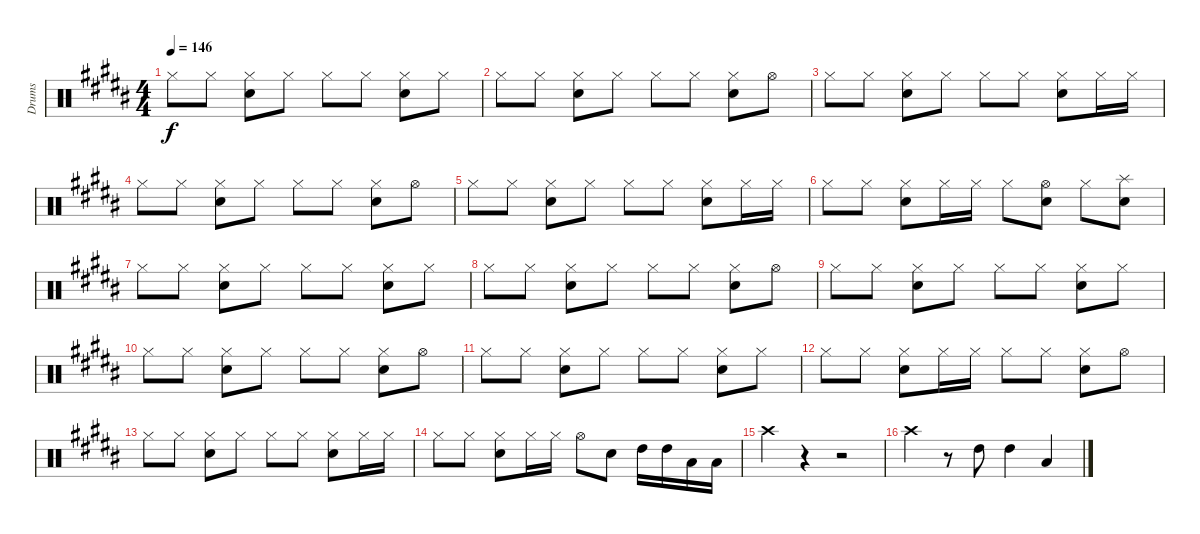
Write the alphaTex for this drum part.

\track ("Drums" "Drums") {instrument percussion}
\staff {score}
\articulation defaults
\ts (4 4)
\tempo 146
\clef neutral
\ks b "Hi-Hat (closed)".8{dy f} "Hi-Hat (closed)".8
("Hi-Hat (closed)" "Snare (hit) 2").8 "Hi-Hat (closed)".8 "Hi-Hat (closed)".8 "Hi-Hat (closed)".8 ("Hi-Hat (closed)" "Snare (hit) 2").8 "Hi-Hat (closed)".8 |
"Hi-Hat (closed)".8 "Hi-Hat (closed)".8 ("Hi-Hat (closed)" "Snare (hit) 2").8 "Hi-Hat (closed)".8 "Hi-Hat (closed)".8 "Hi-Hat (closed)".8 ("Hi-Hat (closed)" "Snare (hit) 2").8 "Hi-Hat (open)".8 |
"Hi-Hat (closed)".8 "Hi-Hat (closed)".8 ("Hi-Hat (closed)" "Snare (hit) 2").8 "Hi-Hat (closed)".8 "Hi-Hat (closed)".8 "Hi-Hat (closed)".8 ("Hi-Hat (closed)" "Snare (hit) 2").8 "Hi-Hat (closed)".16 "Hi-Hat (closed)".16 |
"Hi-Hat (closed)".8 "Hi-Hat (closed)".8 ("Hi-Hat (closed)" "Snare (hit) 2").8 "Hi-Hat (closed)".8 "Hi-Hat (closed)".8 "Hi-Hat (closed)".8 ("Hi-Hat (closed)" "Snare (hit) 2").8 "Hi-Hat (open)".8 |
"Hi-Hat (closed)".8 "Hi-Hat (closed)".8 ("Hi-Hat (closed)" "Snare (hit) 2").8 "Hi-Hat (closed)".8 "Hi-Hat (closed)".8 "Hi-Hat (closed)".8 ("Hi-Hat (closed)" "Snare (hit) 2").8 "Hi-Hat (closed)".16 "Hi-Hat (closed)".16 |
"Hi-Hat (closed)".8 "Hi-Hat (closed)".8 ("Hi-Hat (closed)" "Snare (hit) 2").8 "Hi-Hat (closed)".16 "Hi-Hat (closed)".16 "Hi-Hat (closed)".8 ("Hi-Hat (open)" "Snare (hit) 2").8 "Hi-Hat (closed)".8 ("Splash (hit)" "Snare (hit) 2").8 |
"Hi-Hat (closed)".8 "Hi-Hat (closed)".8 ("Hi-Hat (closed)" "Snare (hit) 2").8 "Hi-Hat (closed)".8 "Hi-Hat (closed)".8 "Hi-Hat (closed)".8 ("Hi-Hat (closed)" "Snare (hit) 2").8 "Hi-Hat (closed)".8 |
"Hi-Hat (closed)".8 "Hi-Hat (closed)".8 ("Hi-Hat (closed)" "Snare (hit) 2").8 "Hi-Hat (closed)".8 "Hi-Hat (closed)".8 "Hi-Hat (closed)".8 ("Hi-Hat (closed)" "Snare (hit) 2").8 "Hi-Hat (open)".8 |
"Hi-Hat (closed)".8 "Hi-Hat (closed)".8 ("Hi-Hat (closed)" "Snare (hit) 2").8 "Hi-Hat (closed)".8 "Hi-Hat (closed)".8 "Hi-Hat (closed)".8 ("Hi-Hat (closed)" "Snare (hit) 2").8 "Hi-Hat (closed)".8 |
"Hi-Hat (closed)".8 "Hi-Hat (closed)".8 ("Hi-Hat (closed)" "Snare (hit) 2").8 "Hi-Hat (closed)".8 "Hi-Hat (closed)".8 "Hi-Hat (closed)".8 ("Hi-Hat (closed)" "Snare (hit) 2").8 "Hi-Hat (open)".8 |
"Hi-Hat (closed)".8 "Hi-Hat (closed)".8 ("Hi-Hat (closed)" "Snare (hit) 2").8 "Hi-Hat (closed)".8 "Hi-Hat (closed)".8 "Hi-Hat (closed)".8 ("Hi-Hat (closed)" "Snare (hit) 2").8 "Hi-Hat (closed)".8 |
"Hi-Hat (closed)".8 "Hi-Hat (closed)".8 ("Hi-Hat (closed)" "Snare (hit) 2").8 "Hi-Hat (closed)".16 "Hi-Hat (closed)".16 "Hi-Hat (closed)".8 "Hi-Hat (closed)".8 ("Hi-Hat (closed)" "Snare (hit) 2").8 "Hi-Hat (open)".8 |
"Hi-Hat (closed)".8 "Hi-Hat (closed)".8 ("Hi-Hat (closed)" "Snare (hit) 2").8 "Hi-Hat (closed)".8 "Hi-Hat (closed)".8 "Hi-Hat (closed)".8 ("Hi-Hat (closed)" "Snare (hit) 2").8 "Hi-Hat (closed)".16 "Hi-Hat (closed)".16 |
"Hi-Hat (closed)".8 "Hi-Hat (closed)".8 ("Hi-Hat (closed)" "Snare (hit) 2").8 "Hi-Hat (closed)".16 "Hi-Hat (closed)".16 "Hi-Hat (open)".8 "Snare (hit) 2".8 "High Tom (hit)".16 "High Tom (hit)".16 "Low Tom (hit)".16 "Low Tom (hit)".16 |
"Crash high (hit)".4 r.4 r.2 |
"Crash high (hit)".4 r.8 "High Tom (hit)".8 "High Tom (hit)".4 "Low Tom (hit)".4
